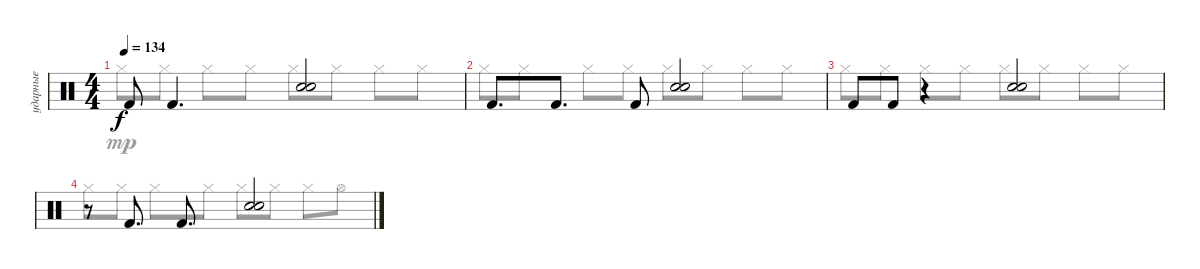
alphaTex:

\track ("ударные" "ударные") {instrument percussion}
\staff {score}
\articulation defaults
\voice
\ts (4 4)
\tempo 134
\clef neutral
\ks c "Kick (hit) 2".8{dy f} "Kick (hit) 2".4{d}
("Hand Clap (hit)" "Electric Snare (hit)").2 |
"Kick (hit) 2".8{d} "Kick (hit) 2".8{d} "Kick (hit) 2".8 ("Hand Clap (hit)" "Electric Snare (hit)").2 |
"Kick (hit) 2".8 "Kick (hit) 2".8 r.4 ("Hand Clap (hit)" "Electric Snare (hit)").2 |
r.8 "Kick (hit) 2".8{d} "Kick (hit) 2".8{d} ("Hand Clap (hit)" "Electric Snare (hit)").2 |
|
|
|
|
|
|
|
|
|
|
|
\voice
\clef neutral
\ottava regular
\simile none
\ks c "Hi-Hat (closed)".8{dy mp} "Hi-Hat (closed)".8 "Hi-Hat (closed)".8 "Hi-Hat (closed)".8 "Hi-Hat (closed)".8 "Hi-Hat (closed)".8 "Hi-Hat (closed)".8 "Hi-Hat (closed)".8
|
"Hi-Hat (closed)".8 "Hi-Hat (closed)".8 "Hi-Hat (closed)".8 "Hi-Hat (closed)".8 "Hi-Hat (closed)".8 "Hi-Hat (closed)".8 "Hi-Hat (closed)".8 "Hi-Hat (closed)".8 |
"Hi-Hat (closed)".8 "Hi-Hat (closed)".8 "Hi-Hat (closed)".8 "Hi-Hat (closed)".8 "Hi-Hat (closed)".8 "Hi-Hat (closed)".8 "Hi-Hat (closed)".8 "Hi-Hat (closed)".8 |
"Hi-Hat (closed)".8 "Hi-Hat (closed)".8 "Hi-Hat (closed)".8 "Hi-Hat (closed)".8 "Hi-Hat (closed)".8 "Hi-Hat (closed)".8 "Hi-Hat (closed)".8 "Hi-Hat (open)".8 |
|
|
|
|
|
|
|
|
|
|
|
